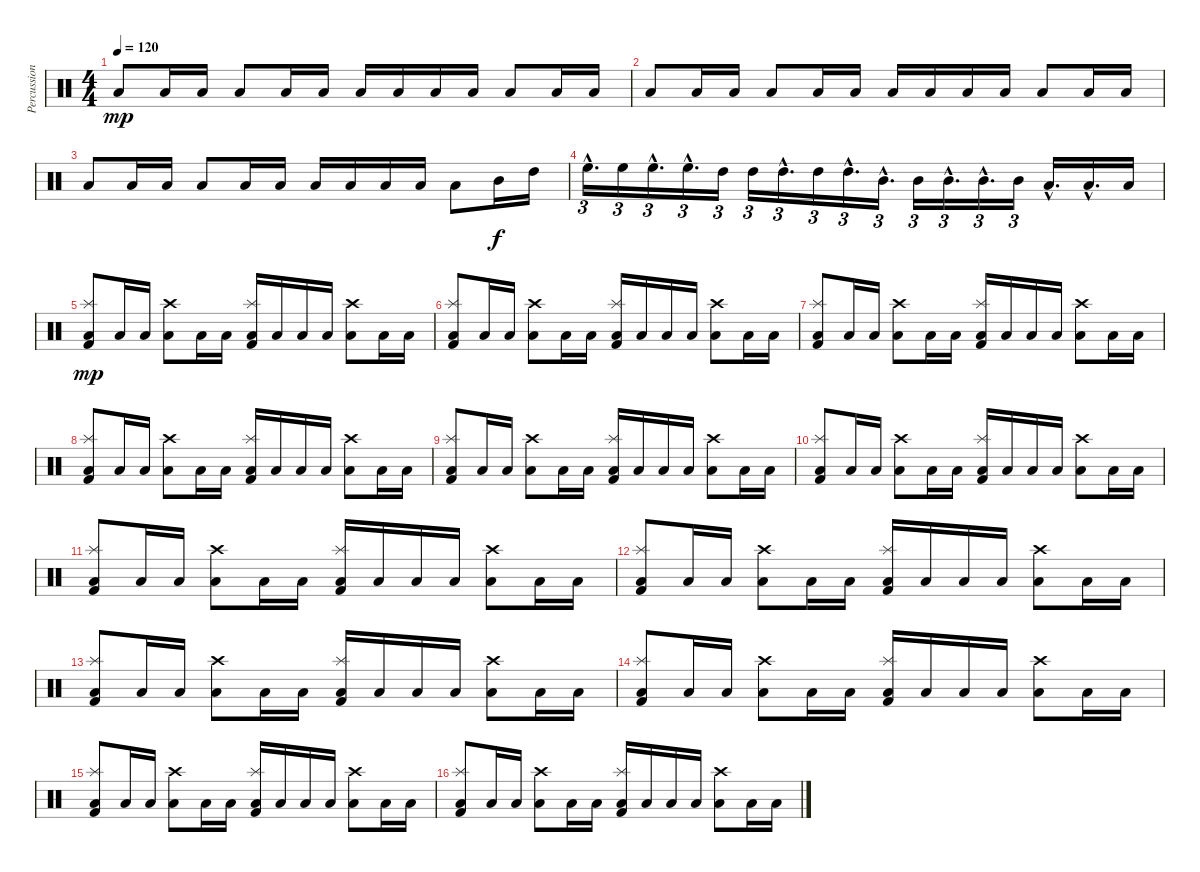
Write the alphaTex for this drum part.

\track ("Percussions" "Percussion") {instrument percussion}
\staff {score}
\articulation defaults
\ts (4 4)
\tempo 120
\clef neutral
\ks c "Low Tom (hit)".8{dy mp} "Low Tom (hit)".16 "Low Tom (hit)".16 "Low Tom (hit)".8 "Low Tom (hit)".16 "Low Tom (hit)".16 "Low Tom (hit)".16 "Low Tom (hit)".16 "Low Tom (hit)".16 "Low Tom (hit)".16 "Low Tom (hit)".8 "Low Tom (hit)".16 "Low Tom (hit)".16
|
"Low Tom (hit)".8 "Low Tom (hit)".16 "Low Tom (hit)".16 "Low Tom (hit)".8 "Low Tom (hit)".16 "Low Tom (hit)".16 "Low Tom (hit)".16 "Low Tom (hit)".16 "Low Tom (hit)".16 "Low Tom (hit)".16 "Low Tom (hit)".8 "Low Tom (hit)".16 "Low Tom (hit)".16 |
"Low Tom (hit)".8 "Low Tom (hit)".16 "Low Tom (hit)".16 "Low Tom (hit)".8 "Low Tom (hit)".16 "Low Tom (hit)".16 "Low Tom (hit)".16 "Low Tom (hit)".16 "Low Tom (hit)".16 "Low Tom (hit)".16 "Low Tom (hit)".8 "Mid Tom (hit)".16{dy f} "High Tom (hit)".16 |
"High Floor Tom (hit)"{hac}.16{d tu (3 2)} "High Floor Tom (hit)".16{tu (3 2)} "High Floor Tom (hit)"{hac}.16{d tu (3 2)} "High Floor Tom (hit)"{hac}.16{d tu (3 2)} "High Tom (hit)".16{tu (3 2)} "High Tom (hit)".16{tu (3 2)} "High Tom (hit)"{hac}.16{d tu (3 2)} "High Tom (hit)".16{tu (3 2)} "High Tom (hit)"{hac}.16{d tu (3 2)} "Mid Tom (hit)"{hac}.16{d tu (3 2)} "Mid Tom (hit)".16{tu (3 2)} "Mid Tom (hit)"{hac}.16{d tu (3 2)} "Mid Tom (hit)"{hac}.16{d tu (3 2)} "Mid Tom (hit)".16{tu (3 2)} "Low Tom (hit)"{hac}.16{d} "Low Tom (hit)"{hac}.16{d} "Low Tom (hit)".16 |
("Splash (hit)" "Low Tom (hit)" "Kick (hit) 2").8{dy mp} "Low Tom (hit)".16 "Low Tom (hit)".16 ("Crash high (hit)" "Low Tom (hit)").8 "Low Tom (hit)".16 "Low Tom (hit)".16 ("Splash (hit)" "Low Tom (hit)" "Kick (hit) 2").16 "Low Tom (hit)".16 "Low Tom (hit)".16 "Low Tom (hit)".16 ("Crash high (hit)" "Low Tom (hit)").8 "Low Tom (hit)".16 "Low Tom (hit)".16 |
("Splash (hit)" "Low Tom (hit)" "Kick (hit) 2").8 "Low Tom (hit)".16 "Low Tom (hit)".16 ("Crash high (hit)" "Low Tom (hit)").8 "Low Tom (hit)".16 "Low Tom (hit)".16 ("Splash (hit)" "Low Tom (hit)" "Kick (hit) 2").16 "Low Tom (hit)".16 "Low Tom (hit)".16 "Low Tom (hit)".16 ("Crash high (hit)" "Low Tom (hit)").8 "Low Tom (hit)".16 "Low Tom (hit)".16 |
("Splash (hit)" "Low Tom (hit)" "Kick (hit) 2").8 "Low Tom (hit)".16 "Low Tom (hit)".16 ("Crash high (hit)" "Low Tom (hit)").8 "Low Tom (hit)".16 "Low Tom (hit)".16 ("Splash (hit)" "Low Tom (hit)" "Kick (hit) 2").16 "Low Tom (hit)".16 "Low Tom (hit)".16 "Low Tom (hit)".16 ("Crash high (hit)" "Low Tom (hit)").8 "Low Tom (hit)".16 "Low Tom (hit)".16 |
("Splash (hit)" "Low Tom (hit)" "Kick (hit) 2").8 "Low Tom (hit)".16 "Low Tom (hit)".16 ("Crash high (hit)" "Low Tom (hit)").8 "Low Tom (hit)".16 "Low Tom (hit)".16 ("Splash (hit)" "Low Tom (hit)" "Kick (hit) 2").16 "Low Tom (hit)".16 "Low Tom (hit)".16 "Low Tom (hit)".16 ("Crash high (hit)" "Low Tom (hit)").8 "Low Tom (hit)".16 "Low Tom (hit)".16 |
("Splash (hit)" "Low Tom (hit)" "Kick (hit) 2").8 "Low Tom (hit)".16 "Low Tom (hit)".16 ("Crash high (hit)" "Low Tom (hit)").8 "Low Tom (hit)".16 "Low Tom (hit)".16 ("Splash (hit)" "Low Tom (hit)" "Kick (hit) 2").16 "Low Tom (hit)".16 "Low Tom (hit)".16 "Low Tom (hit)".16 ("Crash high (hit)" "Low Tom (hit)").8 "Low Tom (hit)".16 "Low Tom (hit)".16 |
("Splash (hit)" "Low Tom (hit)" "Kick (hit) 2").8 "Low Tom (hit)".16 "Low Tom (hit)".16 ("Crash high (hit)" "Low Tom (hit)").8 "Low Tom (hit)".16 "Low Tom (hit)".16 ("Splash (hit)" "Low Tom (hit)" "Kick (hit) 2").16 "Low Tom (hit)".16 "Low Tom (hit)".16 "Low Tom (hit)".16 ("Crash high (hit)" "Low Tom (hit)").8 "Low Tom (hit)".16 "Low Tom (hit)".16 |
("Splash (hit)" "Low Tom (hit)" "Kick (hit) 2").8 "Low Tom (hit)".16 "Low Tom (hit)".16 ("Crash high (hit)" "Low Tom (hit)").8 "Low Tom (hit)".16 "Low Tom (hit)".16 ("Splash (hit)" "Low Tom (hit)" "Kick (hit) 2").16 "Low Tom (hit)".16 "Low Tom (hit)".16 "Low Tom (hit)".16 ("Crash high (hit)" "Low Tom (hit)").8 "Low Tom (hit)".16 "Low Tom (hit)".16 |
("Splash (hit)" "Low Tom (hit)" "Kick (hit) 2").8 "Low Tom (hit)".16 "Low Tom (hit)".16 ("Crash high (hit)" "Low Tom (hit)").8 "Low Tom (hit)".16 "Low Tom (hit)".16 ("Splash (hit)" "Low Tom (hit)" "Kick (hit) 2").16 "Low Tom (hit)".16 "Low Tom (hit)".16 "Low Tom (hit)".16 ("Crash high (hit)" "Low Tom (hit)").8 "Low Tom (hit)".16 "Low Tom (hit)".16 |
("Splash (hit)" "Low Tom (hit)" "Kick (hit) 2").8 "Low Tom (hit)".16 "Low Tom (hit)".16 ("Crash high (hit)" "Low Tom (hit)").8 "Low Tom (hit)".16 "Low Tom (hit)".16 ("Splash (hit)" "Low Tom (hit)" "Kick (hit) 2").16 "Low Tom (hit)".16 "Low Tom (hit)".16 "Low Tom (hit)".16 ("Crash high (hit)" "Low Tom (hit)").8 "Low Tom (hit)".16 "Low Tom (hit)".16 |
("Splash (hit)" "Low Tom (hit)" "Kick (hit) 2").8 "Low Tom (hit)".16 "Low Tom (hit)".16 ("Crash high (hit)" "Low Tom (hit)").8 "Low Tom (hit)".16 "Low Tom (hit)".16 ("Splash (hit)" "Low Tom (hit)" "Kick (hit) 2").16 "Low Tom (hit)".16 "Low Tom (hit)".16 "Low Tom (hit)".16 ("Crash high (hit)" "Low Tom (hit)").8 "Low Tom (hit)".16 "Low Tom (hit)".16 |
("Splash (hit)" "Low Tom (hit)" "Kick (hit) 2").8 "Low Tom (hit)".16 "Low Tom (hit)".16 ("Crash high (hit)" "Low Tom (hit)").8 "Low Tom (hit)".16 "Low Tom (hit)".16 ("Splash (hit)" "Low Tom (hit)" "Kick (hit) 2").16 "Low Tom (hit)".16 "Low Tom (hit)".16 "Low Tom (hit)".16 ("Crash high (hit)" "Low Tom (hit)").8 "Low Tom (hit)".16 "Low Tom (hit)".16 |
("Splash (hit)" "Low Tom (hit)" "Kick (hit) 2").8 "Low Tom (hit)".16 "Low Tom (hit)".16 ("Crash high (hit)" "Low Tom (hit)").8 "Low Tom (hit)".16 "Low Tom (hit)".16 ("Splash (hit)" "Low Tom (hit)" "Kick (hit) 2").16 "Low Tom (hit)".16 "Low Tom (hit)".16 "Low Tom (hit)".16 ("Crash high (hit)" "Low Tom (hit)").8 "Low Tom (hit)".16 "Low Tom (hit)".16
